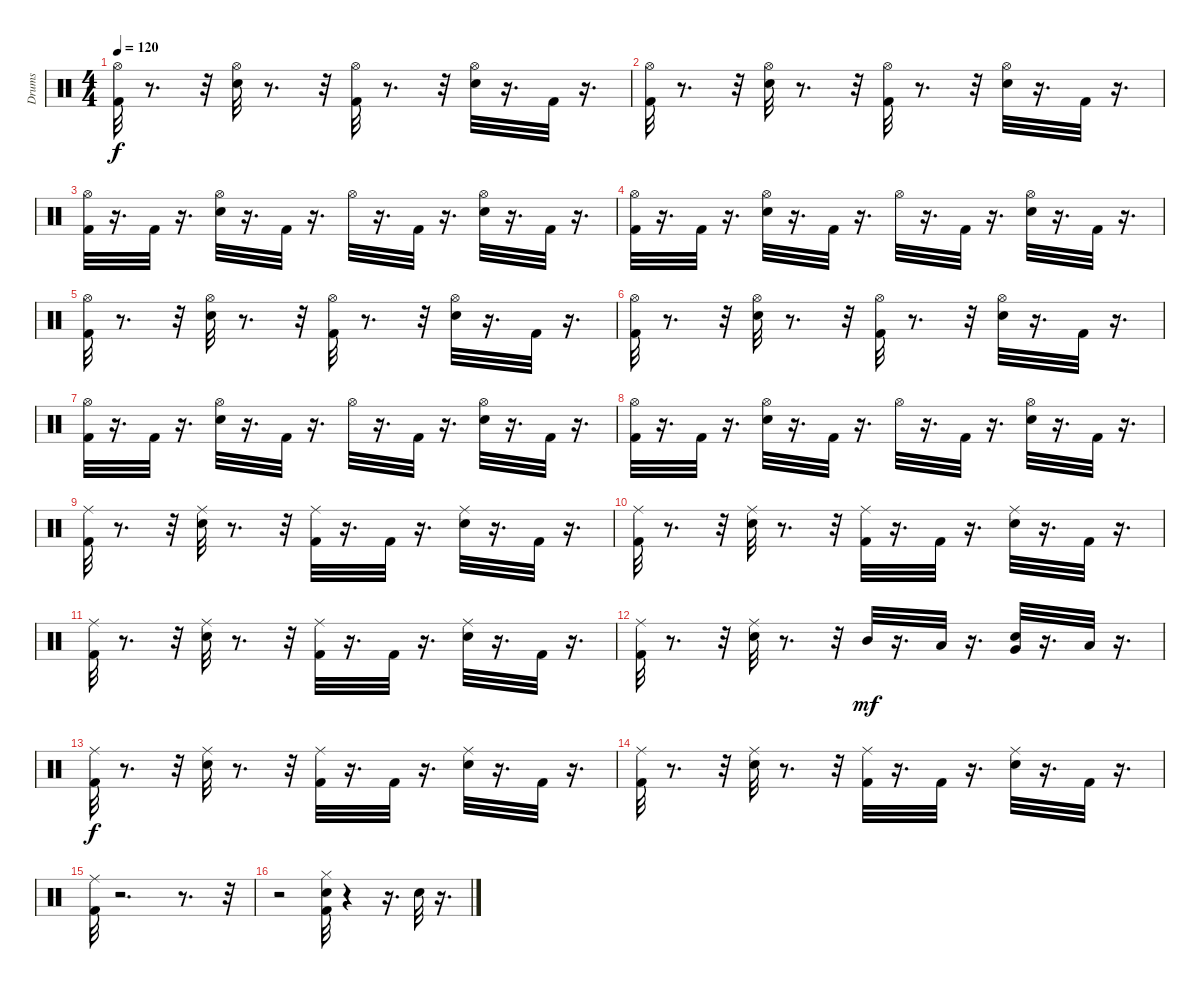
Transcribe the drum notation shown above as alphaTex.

\track ("Drums" "Drums") {instrument percussion}
\staff {score}
\articulation defaults
\ts (4 4)
\tempo 120
\clef neutral
\ks c
("Kick (hit) 2" "Hi-Hat (open)").32{dy f} r.8{d} r.32 ("Snare (hit) 2" "Hi-Hat (open)").32 r.8{d} r.32 ("Kick (hit) 2" "Hi-Hat (open)").32 r.8{d} r.32 ("Snare (hit) 2" "Hi-Hat (open)").32 r.16{d} "Kick (hit) 2".32 r.16{d} |
("Kick (hit) 2" "Hi-Hat (open)").32 r.8{d} r.32 ("Snare (hit) 2" "Hi-Hat (open)").32 r.8{d} r.32 ("Kick (hit) 2" "Hi-Hat (open)").32 r.8{d} r.32 ("Snare (hit) 2" "Hi-Hat (open)").32 r.16{d} "Kick (hit) 2".32 r.16{d} |
("Kick (hit) 2" "Hi-Hat (open)").32 r.16{d} "Kick (hit) 2".32 r.16{d} ("Snare (hit) 2" "Hi-Hat (open)").32 r.16{d} "Kick (hit) 2".32 r.16{d} "Hi-Hat (open)".32 r.16{d} "Kick (hit) 2".32 r.16{d} ("Snare (hit) 2" "Hi-Hat (open)").32 r.16{d} "Kick (hit) 2".32 r.16{d} |
("Kick (hit) 2" "Hi-Hat (open)").32 r.16{d} "Kick (hit) 2".32 r.16{d} ("Snare (hit) 2" "Hi-Hat (open)").32 r.16{d} "Kick (hit) 2".32 r.16{d} "Hi-Hat (open)".32 r.16{d} "Kick (hit) 2".32 r.16{d} ("Snare (hit) 2" "Hi-Hat (open)").32 r.16{d} "Kick (hit) 2".32 r.16{d} |
("Kick (hit) 2" "Hi-Hat (open)").32 r.8{d} r.32 ("Snare (hit) 2" "Hi-Hat (open)").32 r.8{d} r.32 ("Kick (hit) 2" "Hi-Hat (open)").32 r.8{d} r.32 ("Snare (hit) 2" "Hi-Hat (open)").32 r.16{d} "Kick (hit) 2".32 r.16{d} |
("Kick (hit) 2" "Hi-Hat (open)").32 r.8{d} r.32 ("Snare (hit) 2" "Hi-Hat (open)").32 r.8{d} r.32 ("Kick (hit) 2" "Hi-Hat (open)").32 r.8{d} r.32 ("Snare (hit) 2" "Hi-Hat (open)").32 r.16{d} "Kick (hit) 2".32 r.16{d} |
("Kick (hit) 2" "Hi-Hat (open)").32 r.16{d} "Kick (hit) 2".32 r.16{d} ("Snare (hit) 2" "Hi-Hat (open)").32 r.16{d} "Kick (hit) 2".32 r.16{d} "Hi-Hat (open)".32 r.16{d} "Kick (hit) 2".32 r.16{d} ("Snare (hit) 2" "Hi-Hat (open)").32 r.16{d} "Kick (hit) 2".32 r.16{d} |
("Kick (hit) 2" "Hi-Hat (open)").32 r.16{d} "Kick (hit) 2".32 r.16{d} ("Snare (hit) 2" "Hi-Hat (open)").32 r.16{d} "Kick (hit) 2".32 r.16{d} "Hi-Hat (open)".32 r.16{d} "Kick (hit) 2".32 r.16{d} ("Snare (hit) 2" "Hi-Hat (open)").32 r.16{d} "Kick (hit) 2".32 r.16{d} |
("Kick (hit) 2" "Ride (middle)").32 r.8{d} r.32 ("Snare (hit) 2" "Ride (middle)").32 r.8{d} r.32 ("Kick (hit) 2" "Ride (middle)").32 r.16{d} "Kick (hit) 2".32 r.16{d} ("Snare (hit) 2" "Ride (middle)").32 r.16{d} "Kick (hit) 2".32 r.16{d} |
("Kick (hit) 2" "Ride (middle)").32 r.8{d} r.32 ("Snare (hit) 2" "Ride (middle)").32 r.8{d} r.32 ("Kick (hit) 2" "Ride (middle)").32 r.16{d} "Kick (hit) 2".32 r.16{d} ("Snare (hit) 2" "Ride (middle)").32 r.16{d} "Kick (hit) 2".32 r.16{d} |
("Kick (hit) 2" "Ride (middle)").32 r.8{d} r.32 ("Snare (hit) 2" "Ride (middle)").32 r.8{d} r.32 ("Kick (hit) 2" "Ride (middle)").32 r.16{d} "Kick (hit) 2".32 r.16{d} ("Snare (hit) 2" "Ride (middle)").32 r.16{d} "Kick (hit) 2".32 r.16{d} |
("Kick (hit) 2" "Ride (middle)").32 r.8{d} r.32 ("Snare (hit) 2" "Ride (middle)").32 r.8{d} r.32 "Mid Tom (hit)".32{dy mf} r.16{d} "Low Tom (hit)".32 r.16{d} ("Snare (hit) 2" "Very Low Tom (hit)").32 r.16{d} "Low Floor Tom (hit)".32 r.16{d} |
("Kick (hit) 2" "Ride (middle)").32{dy f} r.8{d} r.32 ("Snare (hit) 2" "Ride (middle)").32 r.8{d} r.32 ("Kick (hit) 2" "Ride (middle)").32 r.16{d} "Kick (hit) 2".32 r.16{d} ("Snare (hit) 2" "Ride (middle)").32 r.16{d} "Kick (hit) 2".32 r.16{d} |
("Kick (hit) 2" "Ride (middle)").32 r.8{d} r.32 ("Snare (hit) 2" "Ride (middle)").32 r.8{d} r.32 ("Kick (hit) 2" "Ride (middle)").32 r.16{d} "Kick (hit) 2".32 r.16{d} ("Snare (hit) 2" "Ride (middle)").32 r.16{d} "Kick (hit) 2".32 r.16{d} |
("Kick (hit) 2" "Ride (middle)").32 r.2{d} r.8{d} r.32 |
r.2 ("Kick (hit) 2" "Snare (hit) 2" "Hi-Hat (closed)").32 r.4 r.16{d} "Snare (hit) 2".32 r.16{d}
